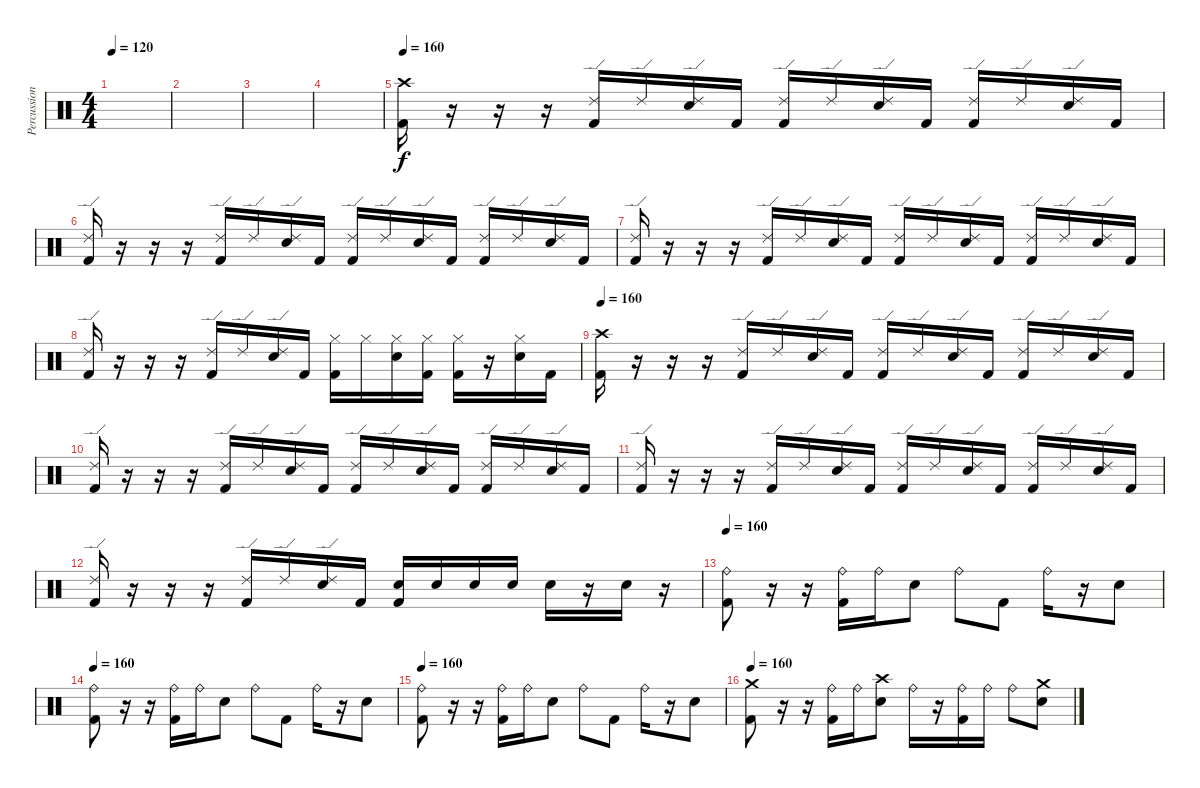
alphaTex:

\track ("Percussions" "Percussion") {instrument percussion}
\staff {score}
\articulation defaults
\ts (4 4)
\tempo 120
\clef neutral
\ks c
|
|
|
|
\tempo 160
("Kick (hit) 2" "Crash high (hit)").16 r.16 r.16 r.16 ("Kick (hit) 2" "Ride (edge) 2").16 "Ride (edge) 2".16 ("Electric Snare (hit)" "Ride (edge) 2").16 "Kick (hit) 2".16 ("Kick (hit) 2" "Ride (edge) 2").16 "Ride (edge) 2".16 ("Electric Snare (hit)" "Ride (edge) 2").16 "Kick (hit) 2".16 ("Kick (hit) 2" "Ride (edge) 2").16 "Ride (edge) 2".16 ("Electric Snare (hit)" "Ride (edge) 2").16 "Kick (hit) 2".16 |
("Kick (hit) 2" "Ride (edge) 2").16 r.16 r.16 r.16 ("Kick (hit) 2" "Ride (edge) 2").16 "Ride (edge) 2".16 ("Electric Snare (hit)" "Ride (edge) 2").16 "Kick (hit) 2".16 ("Kick (hit) 2" "Ride (edge) 2").16 "Ride (edge) 2".16 ("Electric Snare (hit)" "Ride (edge) 2").16 "Kick (hit) 2".16 ("Kick (hit) 2" "Ride (edge) 2").16 "Ride (edge) 2".16 ("Electric Snare (hit)" "Ride (edge) 2").16 "Kick (hit) 2".16 |
("Kick (hit) 2" "Ride (edge) 2").16 r.16 r.16 r.16 ("Kick (hit) 2" "Ride (edge) 2").16 "Ride (edge) 2".16 ("Electric Snare (hit)" "Ride (edge) 2").16 "Kick (hit) 2".16 ("Kick (hit) 2" "Ride (edge) 2").16 "Ride (edge) 2".16 ("Electric Snare (hit)" "Ride (edge) 2").16 "Kick (hit) 2".16 ("Kick (hit) 2" "Ride (edge) 2").16 "Ride (edge) 2".16 ("Electric Snare (hit)" "Ride (edge) 2").16 "Kick (hit) 2".16 |
("Kick (hit) 2" "Ride (edge) 2").16 r.16 r.16 r.16 ("Kick (hit) 2" "Ride (edge) 2").16 "Ride (edge) 2".16 ("Electric Snare (hit)" "Ride (edge) 2").16 "Kick (hit) 2".16 ("Kick (hit) 2" "Hi-Hat (closed)").16 "Hi-Hat (closed)".16 ("Electric Snare (hit)" "Hi-Hat (closed)").16 ("Kick (hit) 2" "Hi-Hat (closed)").16 ("Kick (hit) 2" "Hi-Hat (closed)").16 r.16 ("Electric Snare (hit)" "Hi-Hat (closed)").16 "Kick (hit) 2".16 |
\tempo 160
("Kick (hit) 2" "Crash high (hit)").16 r.16 r.16 r.16 ("Kick (hit) 2" "Ride (edge) 2").16 "Ride (edge) 2".16 ("Electric Snare (hit)" "Ride (edge) 2").16 "Kick (hit) 2".16 ("Kick (hit) 2" "Ride (edge) 2").16 "Ride (edge) 2".16 ("Electric Snare (hit)" "Ride (edge) 2").16 "Kick (hit) 2".16 ("Kick (hit) 2" "Ride (edge) 2").16 "Ride (edge) 2".16 ("Electric Snare (hit)" "Ride (edge) 2").16 "Kick (hit) 2".16 |
("Kick (hit) 2" "Ride (edge) 2").16 r.16 r.16 r.16 ("Kick (hit) 2" "Ride (edge) 2").16 "Ride (edge) 2".16 ("Electric Snare (hit)" "Ride (edge) 2").16 "Kick (hit) 2".16 ("Kick (hit) 2" "Ride (edge) 2").16 "Ride (edge) 2".16 ("Electric Snare (hit)" "Ride (edge) 2").16 "Kick (hit) 2".16 ("Kick (hit) 2" "Ride (edge) 2").16 "Ride (edge) 2".16 ("Electric Snare (hit)" "Ride (edge) 2").16 "Kick (hit) 2".16 |
("Kick (hit) 2" "Ride (edge) 2").16 r.16 r.16 r.16 ("Kick (hit) 2" "Ride (edge) 2").16 "Ride (edge) 2".16 ("Electric Snare (hit)" "Ride (edge) 2").16 "Kick (hit) 2".16 ("Kick (hit) 2" "Ride (edge) 2").16 "Ride (edge) 2".16 ("Electric Snare (hit)" "Ride (edge) 2").16 "Kick (hit) 2".16 ("Kick (hit) 2" "Ride (edge) 2").16 "Ride (edge) 2".16 ("Electric Snare (hit)" "Ride (edge) 2").16 "Kick (hit) 2".16 |
("Kick (hit) 2" "Ride (edge) 2").16 r.16 r.16 r.16 ("Kick (hit) 2" "Ride (edge) 2").16 "Ride (edge) 2".16 ("Electric Snare (hit)" "Ride (edge) 2").16 "Kick (hit) 2".16 ("Kick (hit) 2" "Electric Snare (hit)").16 "Electric Snare (hit)".16 "Electric Snare (hit)".16 "Snare (hit) 2".16 "Snare (hit) 2".16 r.16 "Snare (hit) 2".16 r.16 |
\tempo 160
("Kick (hit) 2" "Ride (bell)").8 r.16 r.16 ("Kick (hit) 2" "Ride (bell)").16 "Ride (bell)".16 "Electric Snare (hit)".8 "Ride (bell)".8 "Kick (hit) 2".8 "Ride (bell)".16 r.16 "Electric Snare (hit)".8 |
\tempo 160
("Kick (hit) 2" "Ride (bell)").8 r.16 r.16 ("Kick (hit) 2" "Ride (bell)").16 "Ride (bell)".16 "Electric Snare (hit)".8 "Ride (bell)".8 "Kick (hit) 2".8 "Ride (bell)".16 r.16 "Electric Snare (hit)".8 |
\tempo 160
("Kick (hit) 2" "Ride (bell)").8 r.16 r.16 ("Kick (hit) 2" "Ride (bell)").16 "Ride (bell)".16 "Electric Snare (hit)".8 "Ride (bell)".8 "Kick (hit) 2".8 "Ride (bell)".16 r.16 "Electric Snare (hit)".8 |
\tempo 160
("Kick (hit) 2" "Crash medium (hit)").8 r.16 r.16 ("Kick (hit) 2" "Ride (bell)").16 "Ride (bell)".16 ("Electric Snare (hit)" "Crash high (hit)").8 "Ride (bell)".16 r.16 ("Kick (hit) 2" "Ride (bell)").16 "Ride (bell)".16 "Ride (bell)".8 ("Electric Snare (hit)" "Crash medium (hit)").8
